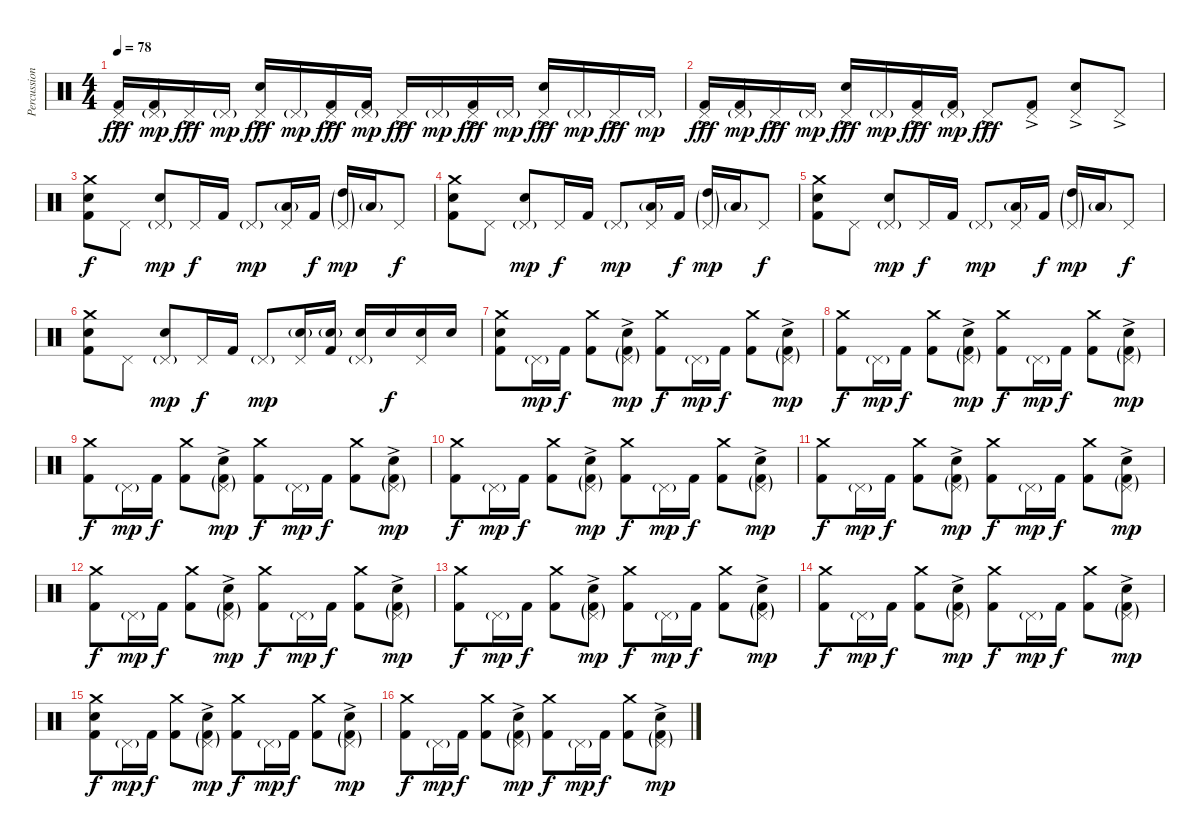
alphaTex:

\track ("Percussions" "Percussion") {instrument percussion}
\staff {score}
\articulation defaults
\ts (4 4)
\tempo 78
\clef neutral
\ks c
("Pedal Hi-Hat (hit)"{ac} "Kick (hit) 2").16{dy fff} ("Pedal Hi-Hat (hit)"{g} "Kick (hit) 2").16{dy mp} "Pedal Hi-Hat (hit)"{ac}.16{dy fff} "Pedal Hi-Hat (hit)"{g}.16{dy mp} ("Pedal Hi-Hat (hit)"{ac} "Electric Snare (hit)").16{dy fff} "Pedal Hi-Hat (hit)"{g}.16{dy mp} ("Pedal Hi-Hat (hit)"{ac} "Kick (hit) 2").16{dy fff} ("Pedal Hi-Hat (hit)"{g} "Kick (hit) 2").16{dy mp} "Pedal Hi-Hat (hit)"{ac}.16{dy fff} "Pedal Hi-Hat (hit)"{g}.16{dy mp} ("Pedal Hi-Hat (hit)"{ac} "Kick (hit) 2").16{dy fff} "Pedal Hi-Hat (hit)"{g}.16{dy mp} ("Pedal Hi-Hat (hit)"{ac} "Electric Snare (hit)").16{dy fff} "Pedal Hi-Hat (hit)"{g}.16{dy mp} "Pedal Hi-Hat (hit)"{ac}.16{dy fff} "Pedal Hi-Hat (hit)"{g}.16{dy mp} |
("Pedal Hi-Hat (hit)"{ac} "Kick (hit) 2").16{dy fff} ("Pedal Hi-Hat (hit)"{g} "Kick (hit) 2").16{dy mp} "Pedal Hi-Hat (hit)"{ac}.16{dy fff} "Pedal Hi-Hat (hit)"{g}.16{dy mp} ("Pedal Hi-Hat (hit)"{ac} "Electric Snare (hit)").16{dy fff} "Pedal Hi-Hat (hit)"{g}.16{dy mp} ("Pedal Hi-Hat (hit)"{ac} "Kick (hit) 2").16{dy fff} ("Pedal Hi-Hat (hit)"{g} "Kick (hit) 2").16{dy mp} "Pedal Hi-Hat (hit)"{ac}.8{dy fff} ("Pedal Hi-Hat (hit)"{ac} "Kick (hit) 2").8 ("Pedal Hi-Hat (hit)"{ac} "Electric Snare (hit)").8 "Pedal Hi-Hat (hit)"{ac}.8 |
("Crash medium (hit)" "Electric Snare (hit)" "Kick (hit) 2").8{dy f} "Pedal Hi-Hat (hit)".8 ("Pedal Hi-Hat (hit)"{g} "Electric Snare (hit)").8{dy mp} "Pedal Hi-Hat (hit)".16{dy f} "Kick (hit) 2".16 "Pedal Hi-Hat (hit)"{g}.8{dy mp} ("Pedal Hi-Hat (hit)" "Low Tom (hit)"{g}).16 "Kick (hit) 2".16{dy f} ("Pedal Hi-Hat (hit)"{g} "High Tom (hit)"{g}).16{dy mp} "Low Tom (hit)"{g}.16 "Pedal Hi-Hat (hit)".8{dy f} |
("Crash medium (hit)" "Electric Snare (hit)" "Kick (hit) 2").8 "Pedal Hi-Hat (hit)".8 ("Pedal Hi-Hat (hit)"{g} "Electric Snare (hit)").8{dy mp} "Pedal Hi-Hat (hit)".16{dy f} "Kick (hit) 2".16 "Pedal Hi-Hat (hit)"{g}.8{dy mp} ("Pedal Hi-Hat (hit)" "Low Tom (hit)"{g}).16 "Kick (hit) 2".16{dy f} ("Pedal Hi-Hat (hit)"{g} "High Tom (hit)"{g}).16{dy mp} "Low Tom (hit)"{g}.16 "Pedal Hi-Hat (hit)".8{dy f} |
("Crash medium (hit)" "Electric Snare (hit)" "Kick (hit) 2").8 "Pedal Hi-Hat (hit)".8 ("Pedal Hi-Hat (hit)"{g} "Electric Snare (hit)").8{dy mp} "Pedal Hi-Hat (hit)".16{dy f} "Kick (hit) 2".16 "Pedal Hi-Hat (hit)"{g}.8{dy mp} ("Pedal Hi-Hat (hit)" "Low Tom (hit)"{g}).16 "Kick (hit) 2".16{dy f} ("Pedal Hi-Hat (hit)"{g} "High Tom (hit)"{g}).16{dy mp} "Low Tom (hit)"{g}.16 "Pedal Hi-Hat (hit)".8{dy f} |
("Crash medium (hit)" "Electric Snare (hit)" "Kick (hit) 2").8 "Pedal Hi-Hat (hit)".8 ("Pedal Hi-Hat (hit)"{g} "Electric Snare (hit)").8{dy mp} "Pedal Hi-Hat (hit)".16{dy f} "Kick (hit) 2".16 "Pedal Hi-Hat (hit)"{g}.8{dy mp} ("Pedal Hi-Hat (hit)" "Electric Snare (hit)"{g}).16 ("Electric Snare (hit)"{g} "Kick (hit) 2").16 ("Pedal Hi-Hat (hit)"{g} "Electric Snare (hit)").16 "Electric Snare (hit)".16{dy f} ("Pedal Hi-Hat (hit)" "Electric Snare (hit)").16 "Electric Snare (hit)".16 |
("Crash medium (hit)" "Electric Snare (hit)" "Kick (hit) 2").8 "Pedal Hi-Hat (hit)"{g}.16{dy mp} "Kick (hit) 2".16{dy f} ("Crash medium (hit)" "Kick (hit) 2").8 ("Pedal Hi-Hat (hit)"{g} "Electric Snare (hit)"{ac} "Kick (hit) 2"{g}).8{dy mp} ("Crash medium (hit)" "Kick (hit) 2").8{dy f} "Pedal Hi-Hat (hit)"{g}.16{dy mp} "Kick (hit) 2".16{dy f} ("Crash medium (hit)" "Kick (hit) 2").8 ("Pedal Hi-Hat (hit)"{g} "Electric Snare (hit)"{ac} "Kick (hit) 2"{g}).8{dy mp} |
("Crash medium (hit)" "Kick (hit) 2").8{dy f} "Pedal Hi-Hat (hit)"{g}.16{dy mp} "Kick (hit) 2".16{dy f} ("Crash medium (hit)" "Kick (hit) 2").8 ("Pedal Hi-Hat (hit)"{g} "Electric Snare (hit)"{ac} "Kick (hit) 2"{g}).8{dy mp} ("Crash medium (hit)" "Kick (hit) 2").8{dy f} "Pedal Hi-Hat (hit)"{g}.16{dy mp} "Kick (hit) 2".16{dy f} ("Crash medium (hit)" "Kick (hit) 2").8 ("Pedal Hi-Hat (hit)"{g} "Electric Snare (hit)"{ac} "Kick (hit) 2"{g}).8{dy mp} |
("Crash medium (hit)" "Kick (hit) 2").8{dy f} "Pedal Hi-Hat (hit)"{g}.16{dy mp} "Kick (hit) 2".16{dy f} ("Crash medium (hit)" "Kick (hit) 2").8 ("Pedal Hi-Hat (hit)"{g} "Electric Snare (hit)"{ac} "Kick (hit) 2"{g}).8{dy mp} ("Crash medium (hit)" "Kick (hit) 2").8{dy f} "Pedal Hi-Hat (hit)"{g}.16{dy mp} "Kick (hit) 2".16{dy f} ("Crash medium (hit)" "Kick (hit) 2").8 ("Pedal Hi-Hat (hit)"{g} "Electric Snare (hit)"{ac} "Kick (hit) 2"{g}).8{dy mp} |
("Crash medium (hit)" "Kick (hit) 2").8{dy f} "Pedal Hi-Hat (hit)"{g}.16{dy mp} "Kick (hit) 2".16{dy f} ("Crash medium (hit)" "Kick (hit) 2").8 ("Pedal Hi-Hat (hit)"{g} "Electric Snare (hit)"{ac} "Kick (hit) 2"{g}).8{dy mp} ("Crash medium (hit)" "Kick (hit) 2").8{dy f} "Pedal Hi-Hat (hit)"{g}.16{dy mp} "Kick (hit) 2".16{dy f} ("Crash medium (hit)" "Kick (hit) 2").8 ("Pedal Hi-Hat (hit)"{g} "Electric Snare (hit)"{ac} "Kick (hit) 2"{g}).8{dy mp} |
("Crash medium (hit)" "Kick (hit) 2").8{dy f} "Pedal Hi-Hat (hit)"{g}.16{dy mp} "Kick (hit) 2".16{dy f} ("Crash medium (hit)" "Kick (hit) 2").8 ("Pedal Hi-Hat (hit)"{g} "Electric Snare (hit)"{ac} "Kick (hit) 2"{g}).8{dy mp} ("Crash medium (hit)" "Kick (hit) 2").8{dy f} "Pedal Hi-Hat (hit)"{g}.16{dy mp} "Kick (hit) 2".16{dy f} ("Crash medium (hit)" "Kick (hit) 2").8 ("Pedal Hi-Hat (hit)"{g} "Electric Snare (hit)"{ac} "Kick (hit) 2"{g}).8{dy mp} |
("Crash medium (hit)" "Kick (hit) 2").8{dy f} "Pedal Hi-Hat (hit)"{g}.16{dy mp} "Kick (hit) 2".16{dy f} ("Crash medium (hit)" "Kick (hit) 2").8 ("Pedal Hi-Hat (hit)"{g} "Electric Snare (hit)"{ac} "Kick (hit) 2"{g}).8{dy mp} ("Crash medium (hit)" "Kick (hit) 2").8{dy f} "Pedal Hi-Hat (hit)"{g}.16{dy mp} "Kick (hit) 2".16{dy f} ("Crash medium (hit)" "Kick (hit) 2").8 ("Pedal Hi-Hat (hit)"{g} "Electric Snare (hit)"{ac} "Kick (hit) 2"{g}).8{dy mp} |
("Crash medium (hit)" "Kick (hit) 2").8{dy f} "Pedal Hi-Hat (hit)"{g}.16{dy mp} "Kick (hit) 2".16{dy f} ("Crash medium (hit)" "Kick (hit) 2").8 ("Pedal Hi-Hat (hit)"{g} "Electric Snare (hit)"{ac} "Kick (hit) 2"{g}).8{dy mp} ("Crash medium (hit)" "Kick (hit) 2").8{dy f} "Pedal Hi-Hat (hit)"{g}.16{dy mp} "Kick (hit) 2".16{dy f} ("Crash medium (hit)" "Kick (hit) 2").8 ("Pedal Hi-Hat (hit)"{g} "Electric Snare (hit)"{ac} "Kick (hit) 2"{g}).8{dy mp} |
("Crash medium (hit)" "Kick (hit) 2").8{dy f} "Pedal Hi-Hat (hit)"{g}.16{dy mp} "Kick (hit) 2".16{dy f} ("Crash medium (hit)" "Kick (hit) 2").8 ("Pedal Hi-Hat (hit)"{g} "Electric Snare (hit)"{ac} "Kick (hit) 2"{g}).8{dy mp} ("Crash medium (hit)" "Kick (hit) 2").8{dy f} "Pedal Hi-Hat (hit)"{g}.16{dy mp} "Kick (hit) 2".16{dy f} ("Crash medium (hit)" "Kick (hit) 2").8 ("Pedal Hi-Hat (hit)"{g} "Electric Snare (hit)"{ac} "Kick (hit) 2"{g}).8{dy mp} |
("Crash medium (hit)" "Electric Snare (hit)" "Kick (hit) 2").8{dy f} "Pedal Hi-Hat (hit)"{g}.16{dy mp} "Kick (hit) 2".16{dy f} ("Crash medium (hit)" "Kick (hit) 2").8 ("Pedal Hi-Hat (hit)"{g} "Electric Snare (hit)"{ac} "Kick (hit) 2"{g}).8{dy mp} ("Crash medium (hit)" "Kick (hit) 2").8{dy f} "Pedal Hi-Hat (hit)"{g}.16{dy mp} "Kick (hit) 2".16{dy f} ("Crash medium (hit)" "Kick (hit) 2").8 ("Pedal Hi-Hat (hit)"{g} "Electric Snare (hit)"{ac} "Kick (hit) 2"{g}).8{dy mp} |
("Crash medium (hit)" "Kick (hit) 2").8{dy f} "Pedal Hi-Hat (hit)"{g}.16{dy mp} "Kick (hit) 2".16{dy f} ("Crash medium (hit)" "Kick (hit) 2").8 ("Pedal Hi-Hat (hit)"{g} "Electric Snare (hit)"{ac} "Kick (hit) 2"{g}).8{dy mp} ("Crash medium (hit)" "Kick (hit) 2").8{dy f} "Pedal Hi-Hat (hit)"{g}.16{dy mp} "Kick (hit) 2".16{dy f} ("Crash medium (hit)" "Kick (hit) 2").8 ("Pedal Hi-Hat (hit)"{g} "Electric Snare (hit)"{ac} "Kick (hit) 2"{g}).8{dy mp}
